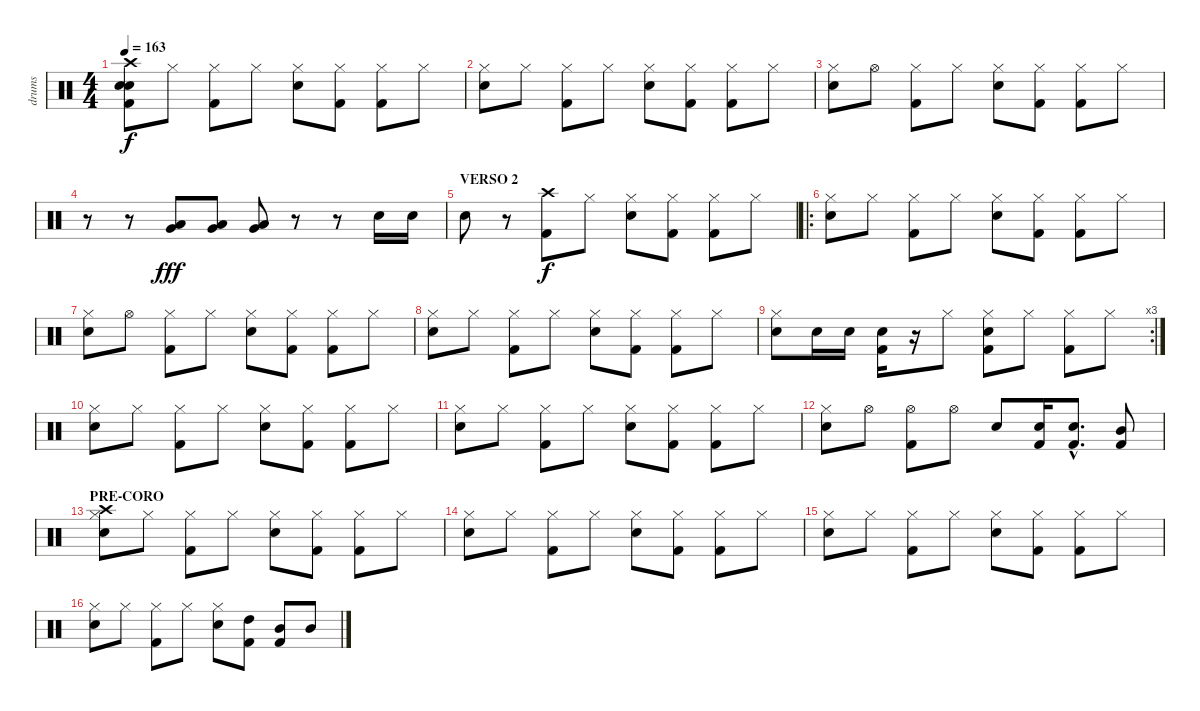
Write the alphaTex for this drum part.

\track ("drums" "drums") {instrument percussion}
\staff {score}
\articulation defaults
\ts (4 4)
\tempo 163
\clef neutral
\ks c
("Crash high (hit)" "Kick (hit) 2" "Electric Snare (hit)" "Electric Snare (hit)").8{dy f} "Hi-Hat (closed)".8 ("Hi-Hat (closed)" "Kick (hit) 2").8 "Hi-Hat (closed)".8 ("Hi-Hat (closed)" "Electric Snare (hit)").8 ("Hi-Hat (closed)" "Kick (hit) 2").8 ("Hi-Hat (closed)" "Kick (hit) 2").8 "Hi-Hat (closed)".8 |
("Hi-Hat (closed)" "Electric Snare (hit)").8 "Hi-Hat (closed)".8 ("Hi-Hat (closed)" "Kick (hit) 2").8 "Hi-Hat (closed)".8 ("Hi-Hat (closed)" "Electric Snare (hit)").8 ("Hi-Hat (closed)" "Kick (hit) 2").8 ("Hi-Hat (closed)" "Kick (hit) 2").8 "Hi-Hat (closed)".8 |
("Hi-Hat (closed)" "Electric Snare (hit)").8 "Hi-Hat (open)".8 ("Hi-Hat (closed)" "Kick (hit) 2").8 "Hi-Hat (closed)".8 ("Hi-Hat (closed)" "Electric Snare (hit)").8 ("Hi-Hat (closed)" "Kick (hit) 2").8 ("Hi-Hat (closed)" "Kick (hit) 2").8 "Hi-Hat (closed)".8 |
r.8 r.8 ("Very Low Tom (hit)" "Low Floor Tom (hit)").8{dy fff} ("Very Low Tom (hit)" "Low Floor Tom (hit)").8 ("Very Low Tom (hit)" "Low Floor Tom (hit)").8 r.8 r.8 "Electric Snare (hit)".16 "Electric Snare (hit)".16 |
\section ("" "VERSO 2")
"Electric Snare (hit)".8 r.8 ("Crash high (hit)" "Kick (hit) 2").8{dy f} "Hi-Hat (closed)".8 ("Hi-Hat (closed)" "Electric Snare (hit)").8 ("Hi-Hat (closed)" "Kick (hit) 2").8 ("Hi-Hat (closed)" "Kick (hit) 2").8 "Hi-Hat (closed)".8 |
\ro
("Hi-Hat (closed)" "Electric Snare (hit)").8 "Hi-Hat (closed)".8 ("Hi-Hat (closed)" "Kick (hit) 2").8 "Hi-Hat (closed)".8 ("Hi-Hat (closed)" "Electric Snare (hit)").8 ("Hi-Hat (closed)" "Kick (hit) 2").8 ("Hi-Hat (closed)" "Kick (hit) 2").8 "Hi-Hat (closed)".8 |
("Hi-Hat (closed)" "Electric Snare (hit)").8 "Hi-Hat (open)".8 ("Hi-Hat (closed)" "Kick (hit) 2").8 "Hi-Hat (closed)".8 ("Hi-Hat (closed)" "Electric Snare (hit)").8 ("Hi-Hat (closed)" "Kick (hit) 2").8 ("Hi-Hat (closed)" "Kick (hit) 2").8 "Hi-Hat (closed)".8 |
("Hi-Hat (closed)" "Electric Snare (hit)").8 "Hi-Hat (closed)".8 ("Hi-Hat (closed)" "Kick (hit) 2").8 "Hi-Hat (closed)".8 ("Hi-Hat (closed)" "Electric Snare (hit)").8 ("Hi-Hat (closed)" "Kick (hit) 2").8 ("Hi-Hat (closed)" "Kick (hit) 2").8 "Hi-Hat (closed)".8 |
\rc 3
("Hi-Hat (closed)" "Electric Snare (hit)").8 "Electric Snare (hit)".16 "Electric Snare (hit)".16 ("Electric Snare (hit)" "Kick (hit) 2").16 r.16 "Hi-Hat (closed)".8 ("Hi-Hat (closed)" "Electric Snare (hit)" "Kick (hit) 2").8 "Hi-Hat (closed)".8 ("Hi-Hat (closed)" "Kick (hit) 2").8 "Hi-Hat (closed)".8 |
("Hi-Hat (closed)" "Electric Snare (hit)").8 "Hi-Hat (closed)".8 ("Hi-Hat (closed)" "Kick (hit) 2").8 "Hi-Hat (closed)".8 ("Hi-Hat (closed)" "Electric Snare (hit)").8 ("Hi-Hat (closed)" "Kick (hit) 2").8 ("Hi-Hat (closed)" "Kick (hit) 2").8 "Hi-Hat (closed)".8 |
("Hi-Hat (closed)" "Electric Snare (hit)").8 "Hi-Hat (closed)".8 ("Hi-Hat (closed)" "Kick (hit) 2").8 "Hi-Hat (closed)".8 ("Hi-Hat (closed)" "Electric Snare (hit)").8 ("Hi-Hat (closed)" "Kick (hit) 2").8 ("Hi-Hat (closed)" "Kick (hit) 2").8 "Hi-Hat (closed)".8 |
("Hi-Hat (closed)" "Electric Snare (hit)").8 "Hi-Hat (open)".8 ("Hi-Hat (open)" "Kick (hit) 2").8 "Hi-Hat (open)".8 "Electric Snare (hit)".8 ("Electric Snare (hit)" "Kick (hit) 2").16 ("Electric Snare (hit)"{hac} "Kick (hit) 2"{hac}).8{d} ("Mid Tom (hit)" "Kick (hit) 2").8 |
\section ("" "PRE-CORO")
("Crash high (hit)" "Hi-Hat (closed)" "Electric Snare (hit)").8 "Hi-Hat (closed)".8 ("Hi-Hat (closed)" "Kick (hit) 2").8 "Hi-Hat (closed)".8 ("Hi-Hat (closed)" "Electric Snare (hit)").8 ("Hi-Hat (closed)" "Kick (hit) 2").8 ("Hi-Hat (closed)" "Kick (hit) 2").8 "Hi-Hat (closed)".8 |
("Hi-Hat (closed)" "Electric Snare (hit)").8 "Hi-Hat (closed)".8 ("Hi-Hat (closed)" "Kick (hit) 2").8 "Hi-Hat (closed)".8 ("Hi-Hat (closed)" "Electric Snare (hit)").8 ("Hi-Hat (closed)" "Kick (hit) 2").8 ("Hi-Hat (closed)" "Kick (hit) 2").8 "Hi-Hat (closed)".8 |
("Hi-Hat (closed)" "Electric Snare (hit)").8 "Hi-Hat (closed)".8 ("Hi-Hat (closed)" "Kick (hit) 2").8 "Hi-Hat (closed)".8 ("Hi-Hat (closed)" "Electric Snare (hit)").8 ("Hi-Hat (closed)" "Kick (hit) 2").8 ("Hi-Hat (closed)" "Kick (hit) 2").8 "Hi-Hat (closed)".8 |
("Hi-Hat (closed)" "Electric Snare (hit)").8 "Hi-Hat (closed)".8 ("Hi-Hat (closed)" "Kick (hit) 2").8 "Hi-Hat (closed)".8 ("Hi-Hat (closed)" "Electric Snare (hit)").8 ("High Tom (hit)" "Kick (hit) 2").8 ("Mid Tom (hit)" "Kick (hit) 2").8 "Mid Tom (hit)".8
